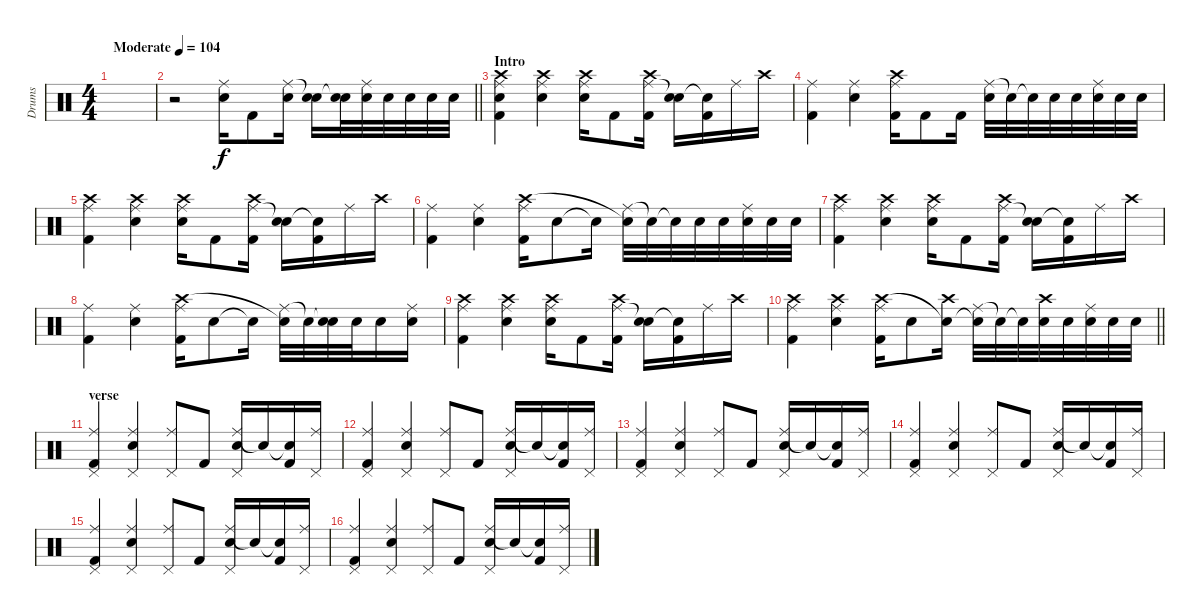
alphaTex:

\track ("Drums" "Drums") {instrument percussion}
\staff {score}
\articulation defaults
\ts (4 4)
\tempo (104 "Moderate")
\clef neutral
\ks c
|
\barLineRight lightlight
r.2 ("Ride (middle)" "Electric Snare (hit)").16 "Kick (hit) 2".8 ("Ride (middle)" "Electric Snare (hit)").16 ("Snare (hit)"{t} "Electric Snare (hit)").16 ("Electric Snare (hit)"{t} "Electric Snare (hit)").32 ("Ride (middle)" "Electric Snare (hit)").32 "Electric Snare (hit)".32 "Electric Snare (hit)".32 "Electric Snare (hit)".32 "Electric Snare (hit)".32 |
\section ("" "Intro")
("Ride (middle)" "Electric Snare (hit)" "Kick (hit) 2" "Crash high (hit)").4 ("Ride (middle)" "Crash high (hit)" "Electric Snare (hit)").4 ("Ride (middle)" "Crash high (hit)" "Electric Snare (hit)").16 "Kick (hit) 2".8 ("Ride (middle)" "Crash high (hit)" "Kick (hit) 2").16 ("Snare (hit)"{t} "Electric Snare (hit)").16 ("Electric Snare (hit)"{t} "Kick (hit) 2").16 "Ride (middle)".16 "Crash high (hit)".16 |
("Ride (middle)" "Kick (hit) 2").4 ("Ride (middle)" "Electric Snare (hit)").4 ("Ride (middle)" "Crash high (hit)" "Kick (hit) 2").16 "Kick (hit) 2".8 "Kick (hit) 2".16 ("Ride (middle)" "Electric Snare (hit)").32 "Electric Snare (hit)"{t}.32 "Snare (hit)"{t}.32 "Electric Snare (hit)".32 "Electric Snare (hit)".32 ("Ride (middle)" "Electric Snare (hit)").32 "Electric Snare (hit)".32 "Electric Snare (hit)".32 |
("Ride (middle)" "Crash high (hit)" "Kick (hit) 2").4 ("Ride (middle)" "Crash high (hit)" "Electric Snare (hit)").4 ("Ride (middle)" "Crash high (hit)" "Electric Snare (hit)").16 "Kick (hit) 2".8 ("Ride (middle)" "Crash high (hit)" "Kick (hit) 2").16 ("Snare (hit)"{t} "Electric Snare (hit)").16 ("Electric Snare (hit)"{t} "Kick (hit) 2").16 "Ride (middle)".16 "Crash high (hit)".16 |
("Ride (middle)" "Kick (hit) 2").4 ("Ride (middle)" "Electric Snare (hit)").4 ("Ride (middle)" "Crash high (hit)" "Kick (hit) 2").16 "Electric Snare (hit)".8 "Snare (hit)"{t}.16 ("Ride (middle)" "Electric Snare (hit)"{t}).32 "Electric Snare (hit)"{t}.32 "Snare (hit)"{t}.32 "Electric Snare (hit)".32 "Electric Snare (hit)".32 ("Ride (middle)" "Electric Snare (hit)").32 "Electric Snare (hit)".32 "Electric Snare (hit)".32 |
("Ride (middle)" "Crash high (hit)" "Kick (hit) 2").4 ("Ride (middle)" "Crash high (hit)" "Electric Snare (hit)").4 ("Ride (middle)" "Crash high (hit)" "Electric Snare (hit)").16 "Kick (hit) 2".8 ("Ride (middle)" "Crash high (hit)" "Kick (hit) 2").16 ("Snare (hit)"{t} "Electric Snare (hit)").16 ("Electric Snare (hit)"{t} "Kick (hit) 2").16 "Ride (middle)".16 "Crash high (hit)".16 |
("Ride (middle)" "Kick (hit) 2").4 ("Ride (middle)" "Electric Snare (hit)").4 ("Ride (middle)" "Crash high (hit)" "Kick (hit) 2").16 "Electric Snare (hit)".8 "Snare (hit)"{t}.16 ("Ride (middle)" "Electric Snare (hit)"{t}).32 "Electric Snare (hit)"{t}.32 ("Snare (hit)"{t} "Electric Snare (hit)").32 "Electric Snare (hit)".32 "Electric Snare (hit)".16 ("Ride (middle)" "Electric Snare (hit)").16 |
("Ride (middle)" "Crash high (hit)" "Kick (hit) 2").4 ("Ride (middle)" "Crash high (hit)" "Electric Snare (hit)").4 ("Ride (middle)" "Crash high (hit)" "Electric Snare (hit)").16 "Kick (hit) 2".8 ("Ride (middle)" "Crash high (hit)" "Kick (hit) 2").16 ("Snare (hit)"{t} "Electric Snare (hit)").16 ("Electric Snare (hit)"{t} "Kick (hit) 2").16 "Ride (middle)".16 "Crash high (hit)".16 |
\barLineRight lightlight
("Ride (middle)" "Crash high (hit)" "Kick (hit) 2").4 ("Ride (middle)" "Crash high (hit)" "Electric Snare (hit)").4 ("Ride (middle)" "Crash high (hit)" "Kick (hit) 2").16 "Electric Snare (hit)".8 ("Crash high (hit)" "Snare (hit)"{t}).16 ("Ride (middle)" "Electric Snare (hit)"{t}).32 "Electric Snare (hit)"{t}.32 "Snare (hit)"{t}.32 ("Crash high (hit)" "Electric Snare (hit)").32 "Electric Snare (hit)".32 ("Ride (middle)" "Electric Snare (hit)").32 "Electric Snare (hit)".32 "Electric Snare (hit)".32 |
\section ("" "verse")
("Ride (middle)" "Pedal Hi-Hat (hit)" "Kick (hit) 2").4 ("Ride (middle)" "Pedal Hi-Hat (hit)" "Electric Snare (hit)").4 ("Ride (middle)" "Pedal Hi-Hat (hit)").8 "Kick (hit) 2".8 ("Ride (middle)" "Pedal Hi-Hat (hit)" "Electric Snare (hit)").16 "Snare (hit)"{t}.16 ("Electric Snare (hit)"{t} "Kick (hit) 2").16 ("Ride (middle)" "Pedal Hi-Hat (hit)").16 |
("Ride (middle)" "Pedal Hi-Hat (hit)" "Kick (hit) 2").4 ("Ride (middle)" "Pedal Hi-Hat (hit)" "Electric Snare (hit)").4 ("Ride (middle)" "Pedal Hi-Hat (hit)").8 "Kick (hit) 2".8 ("Ride (middle)" "Pedal Hi-Hat (hit)" "Electric Snare (hit)").16 "Snare (hit)"{t}.16 ("Electric Snare (hit)"{t} "Kick (hit) 2").16 ("Ride (middle)" "Pedal Hi-Hat (hit)").16 |
("Ride (middle)" "Pedal Hi-Hat (hit)" "Kick (hit) 2").4 ("Ride (middle)" "Pedal Hi-Hat (hit)" "Electric Snare (hit)").4 ("Ride (middle)" "Pedal Hi-Hat (hit)").8 "Kick (hit) 2".8 ("Ride (middle)" "Pedal Hi-Hat (hit)" "Electric Snare (hit)").16 "Snare (hit)"{t}.16 ("Electric Snare (hit)"{t} "Kick (hit) 2").16 ("Ride (middle)" "Pedal Hi-Hat (hit)").16 |
("Ride (middle)" "Pedal Hi-Hat (hit)" "Kick (hit) 2").4 ("Ride (middle)" "Pedal Hi-Hat (hit)" "Electric Snare (hit)").4 ("Ride (middle)" "Pedal Hi-Hat (hit)").8 "Kick (hit) 2".8 ("Ride (middle)" "Pedal Hi-Hat (hit)" "Electric Snare (hit)").16 "Snare (hit)"{t}.16 ("Electric Snare (hit)"{t} "Kick (hit) 2").16 ("Ride (middle)" "Pedal Hi-Hat (hit)").16 |
("Ride (middle)" "Pedal Hi-Hat (hit)" "Kick (hit) 2").4 ("Ride (middle)" "Pedal Hi-Hat (hit)" "Electric Snare (hit)").4 ("Ride (middle)" "Pedal Hi-Hat (hit)").8 "Kick (hit) 2".8 ("Ride (middle)" "Pedal Hi-Hat (hit)" "Electric Snare (hit)").16 "Snare (hit)"{t}.16 ("Electric Snare (hit)"{t} "Kick (hit) 2").16 ("Ride (middle)" "Pedal Hi-Hat (hit)").16 |
("Ride (middle)" "Pedal Hi-Hat (hit)" "Kick (hit) 2").4 ("Ride (middle)" "Pedal Hi-Hat (hit)" "Electric Snare (hit)").4 ("Ride (middle)" "Pedal Hi-Hat (hit)").8 "Kick (hit) 2".8 ("Ride (middle)" "Pedal Hi-Hat (hit)" "Electric Snare (hit)").16 "Snare (hit)"{t}.16 ("Electric Snare (hit)"{t} "Kick (hit) 2").16 ("Ride (middle)" "Pedal Hi-Hat (hit)").16
